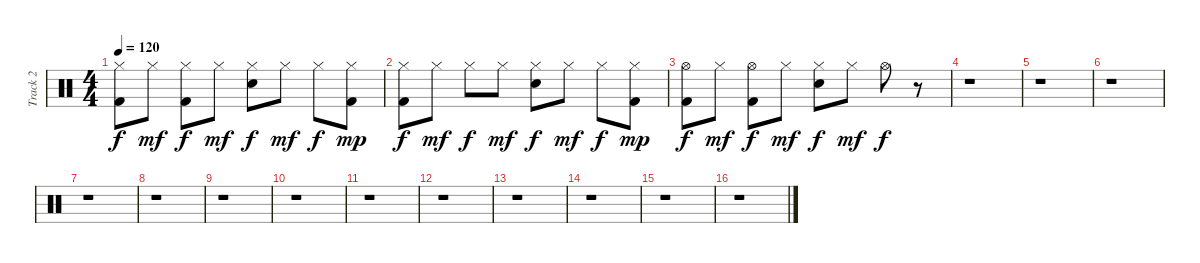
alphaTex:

\track ("Track 2" "Track 2") {instrument percussion}
\staff {score}
\articulation defaults
\ts (4 4)
\tempo 120
\clef neutral
\ks c
("Hi-Hat (closed)" "Kick (hit) 2").8{dy f} "Hi-Hat (closed)".8{dy mf} ("Hi-Hat (closed)" "Kick (hit) 2").8{dy f} "Hi-Hat (closed)".8{dy mf} ("Hi-Hat (closed)" "Electric Snare (hit)").8{dy f} "Hi-Hat (closed)".8{dy mf} "Hi-Hat (closed)".8{dy f} ("Hi-Hat (closed)" "Kick (hit) 2").8{dy mp} |
("Hi-Hat (closed)" "Kick (hit) 2").8{dy f} "Hi-Hat (closed)".8{dy mf} "Hi-Hat (closed)".8{dy f} "Hi-Hat (closed)".8{dy mf} ("Hi-Hat (closed)" "Electric Snare (hit)").8{dy f} "Hi-Hat (closed)".8{dy mf} "Hi-Hat (closed)".8{dy f} ("Hi-Hat (closed)" "Kick (hit) 2").8{dy mp} |
("Hi-Hat (open)" "Kick (hit) 2").8{dy f} "Hi-Hat (closed)".8{dy mf} ("Hi-Hat (open)" "Kick (hit) 2").8{dy f} "Hi-Hat (closed)".8{dy mf} ("Hi-Hat (closed)" "Electric Snare (hit)").8{dy f} "Hi-Hat (closed)".8{dy mf} "Hi-Hat (open)".8{dy f} r.8 |
r.1 |
r.1 |
r.1 |
r.1 |
r.1 |
r.1 |
r.1 |
r.1 |
r.1 |
r.1 |
r.1 |
r.1 |
r.1
